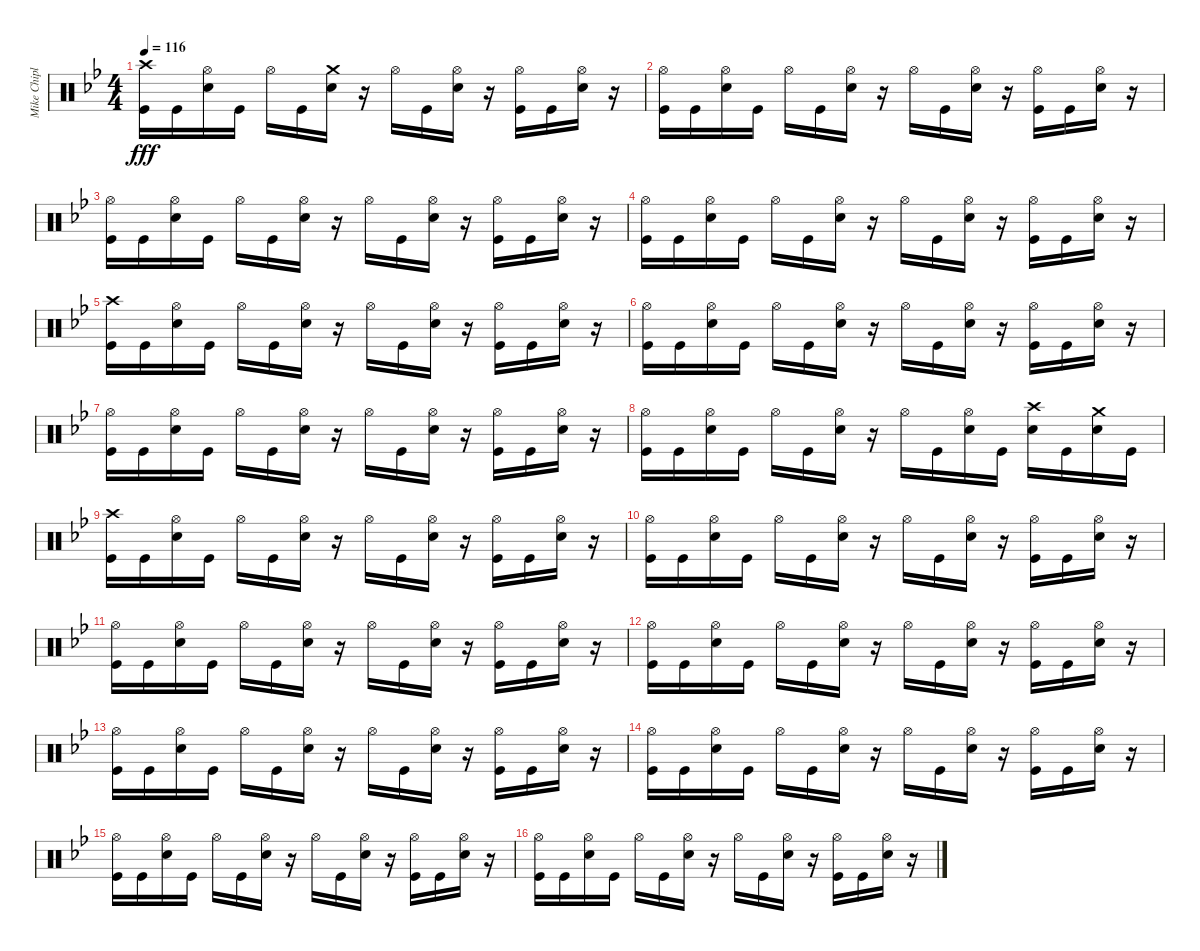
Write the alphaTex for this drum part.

\track ("Mike Chiplin" "Mike Chipl") {instrument percussion}
\staff {score}
\articulation defaults
\ts (4 4)
\tempo 116
\clef neutral
\ks bb
("Crash high (hit)" "Kick (hit)").16{dy fff} "Kick (hit)".16 ("Hi-Hat (open)" "Snare (hit) 2").16 "Kick (hit)".16 "Hi-Hat (open)".16 "Kick (hit)".16 ("Crash medium (hit)" "Snare (hit) 2").16 r.16 "Hi-Hat (open)".16 "Kick (hit)".16 ("Hi-Hat (open)" "Snare (hit) 2").16 r.16 ("Hi-Hat (open)" "Kick (hit)").16 "Kick (hit)".16 ("Hi-Hat (open)" "Snare (hit) 2").16 r.16 |
("Hi-Hat (open)" "Kick (hit)").16 "Kick (hit)".16 ("Hi-Hat (open)" "Snare (hit) 2").16 "Kick (hit)".16 "Hi-Hat (open)".16 "Kick (hit)".16 ("Hi-Hat (open)" "Snare (hit) 2").16 r.16 "Hi-Hat (open)".16 "Kick (hit)".16 ("Hi-Hat (open)" "Snare (hit) 2").16 r.16 ("Hi-Hat (open)" "Kick (hit)").16 "Kick (hit)".16 ("Hi-Hat (open)" "Snare (hit) 2").16 r.16 |
("Hi-Hat (open)" "Kick (hit)").16 "Kick (hit)".16 ("Hi-Hat (open)" "Snare (hit) 2").16 "Kick (hit)".16 "Hi-Hat (open)".16 "Kick (hit)".16 ("Hi-Hat (open)" "Snare (hit) 2").16 r.16 "Hi-Hat (open)".16 "Kick (hit)".16 ("Hi-Hat (open)" "Snare (hit) 2").16 r.16 ("Hi-Hat (open)" "Kick (hit)").16 "Kick (hit)".16 ("Hi-Hat (open)" "Snare (hit) 2").16 r.16 |
("Hi-Hat (open)" "Kick (hit)").16 "Kick (hit)".16 ("Hi-Hat (open)" "Snare (hit) 2").16 "Kick (hit)".16 "Hi-Hat (open)".16 "Kick (hit)".16 ("Hi-Hat (open)" "Snare (hit) 2").16 r.16 "Hi-Hat (open)".16 "Kick (hit)".16 ("Hi-Hat (open)" "Snare (hit) 2").16 r.16 ("Hi-Hat (open)" "Kick (hit)").16 "Kick (hit)".16 ("Hi-Hat (open)" "Snare (hit) 2").16 r.16 |
("Crash high (hit)" "Kick (hit)").16 "Kick (hit)".16 ("Hi-Hat (open)" "Snare (hit) 2").16 "Kick (hit)".16 "Hi-Hat (open)".16 "Kick (hit)".16 ("Hi-Hat (open)" "Snare (hit) 2").16 r.16 "Hi-Hat (open)".16 "Kick (hit)".16 ("Hi-Hat (open)" "Snare (hit) 2").16 r.16 ("Hi-Hat (open)" "Kick (hit)").16 "Kick (hit)".16 ("Hi-Hat (open)" "Snare (hit) 2").16 r.16 |
("Hi-Hat (open)" "Kick (hit)").16 "Kick (hit)".16 ("Hi-Hat (open)" "Snare (hit) 2").16 "Kick (hit)".16 "Hi-Hat (open)".16 "Kick (hit)".16 ("Hi-Hat (open)" "Snare (hit) 2").16 r.16 "Hi-Hat (open)".16 "Kick (hit)".16 ("Hi-Hat (open)" "Snare (hit) 2").16 r.16 ("Hi-Hat (open)" "Kick (hit)").16 "Kick (hit)".16 ("Hi-Hat (open)" "Snare (hit) 2").16 r.16 |
("Hi-Hat (open)" "Kick (hit)").16 "Kick (hit)".16 ("Hi-Hat (open)" "Snare (hit) 2").16 "Kick (hit)".16 "Hi-Hat (open)".16 "Kick (hit)".16 ("Hi-Hat (open)" "Snare (hit) 2").16 r.16 "Hi-Hat (open)".16 "Kick (hit)".16 ("Hi-Hat (open)" "Snare (hit) 2").16 r.16 ("Hi-Hat (open)" "Kick (hit)").16 "Kick (hit)".16 ("Hi-Hat (open)" "Snare (hit) 2").16 r.16 |
("Hi-Hat (open)" "Kick (hit)").16 "Kick (hit)".16 ("Hi-Hat (open)" "Snare (hit) 2").16 "Kick (hit)".16 "Hi-Hat (open)".16 "Kick (hit)".16 ("Hi-Hat (open)" "Snare (hit) 2").16 r.16 "Hi-Hat (open)".16 "Kick (hit)".16 ("Hi-Hat (open)" "Snare (hit) 2").16 "Kick (hit)".16 ("Crash high (hit)" "Snare (hit) 2").16 "Kick (hit)".16 ("Crash medium (hit)" "Snare (hit) 2").16 "Kick (hit)".16 |
("Crash high (hit)" "Kick (hit)").16 "Kick (hit)".16 ("Hi-Hat (open)" "Snare (hit) 2").16 "Kick (hit)".16 "Hi-Hat (open)".16 "Kick (hit)".16 ("Hi-Hat (open)" "Snare (hit) 2").16 r.16 "Hi-Hat (open)".16 "Kick (hit)".16 ("Hi-Hat (open)" "Snare (hit) 2").16 r.16 ("Hi-Hat (open)" "Kick (hit)").16 "Kick (hit)".16 ("Hi-Hat (open)" "Snare (hit) 2").16 r.16 |
("Hi-Hat (open)" "Kick (hit)").16 "Kick (hit)".16 ("Hi-Hat (open)" "Snare (hit) 2").16 "Kick (hit)".16 "Hi-Hat (open)".16 "Kick (hit)".16 ("Hi-Hat (open)" "Snare (hit) 2").16 r.16 "Hi-Hat (open)".16 "Kick (hit)".16 ("Hi-Hat (open)" "Snare (hit) 2").16 r.16 ("Hi-Hat (open)" "Kick (hit)").16 "Kick (hit)".16 ("Hi-Hat (open)" "Snare (hit) 2").16 r.16 |
("Hi-Hat (open)" "Kick (hit)").16 "Kick (hit)".16 ("Hi-Hat (open)" "Snare (hit) 2").16 "Kick (hit)".16 "Hi-Hat (open)".16 "Kick (hit)".16 ("Hi-Hat (open)" "Snare (hit) 2").16 r.16 "Hi-Hat (open)".16 "Kick (hit)".16 ("Hi-Hat (open)" "Snare (hit) 2").16 r.16 ("Hi-Hat (open)" "Kick (hit)").16 "Kick (hit)".16 ("Hi-Hat (open)" "Snare (hit) 2").16 r.16 |
("Hi-Hat (open)" "Kick (hit)").16 "Kick (hit)".16 ("Hi-Hat (open)" "Snare (hit) 2").16 "Kick (hit)".16 "Hi-Hat (open)".16 "Kick (hit)".16 ("Hi-Hat (open)" "Snare (hit) 2").16 r.16 "Hi-Hat (open)".16 "Kick (hit)".16 ("Hi-Hat (open)" "Snare (hit) 2").16 r.16 ("Hi-Hat (open)" "Kick (hit)").16 "Kick (hit)".16 ("Hi-Hat (open)" "Snare (hit) 2").16 r.16 |
("Hi-Hat (open)" "Kick (hit)").16 "Kick (hit)".16 ("Hi-Hat (open)" "Snare (hit) 2").16 "Kick (hit)".16 "Hi-Hat (open)".16 "Kick (hit)".16 ("Hi-Hat (open)" "Snare (hit) 2").16 r.16 "Hi-Hat (open)".16 "Kick (hit)".16 ("Hi-Hat (open)" "Snare (hit) 2").16 r.16 ("Hi-Hat (open)" "Kick (hit)").16 "Kick (hit)".16 ("Hi-Hat (open)" "Snare (hit) 2").16 r.16 |
("Hi-Hat (open)" "Kick (hit)").16 "Kick (hit)".16 ("Hi-Hat (open)" "Snare (hit) 2").16 "Kick (hit)".16 "Hi-Hat (open)".16 "Kick (hit)".16 ("Hi-Hat (open)" "Snare (hit) 2").16 r.16 "Hi-Hat (open)".16 "Kick (hit)".16 ("Hi-Hat (open)" "Snare (hit) 2").16 r.16 ("Hi-Hat (open)" "Kick (hit)").16 "Kick (hit)".16 ("Hi-Hat (open)" "Snare (hit) 2").16 r.16 |
("Hi-Hat (open)" "Kick (hit)").16 "Kick (hit)".16 ("Hi-Hat (open)" "Snare (hit) 2").16 "Kick (hit)".16 "Hi-Hat (open)".16 "Kick (hit)".16 ("Hi-Hat (open)" "Snare (hit) 2").16 r.16 "Hi-Hat (open)".16 "Kick (hit)".16 ("Hi-Hat (open)" "Snare (hit) 2").16 r.16 ("Hi-Hat (open)" "Kick (hit)").16 "Kick (hit)".16 ("Hi-Hat (open)" "Snare (hit) 2").16 r.16 |
("Hi-Hat (open)" "Kick (hit)").16 "Kick (hit)".16 ("Hi-Hat (open)" "Snare (hit) 2").16 "Kick (hit)".16 "Hi-Hat (open)".16 "Kick (hit)".16 ("Hi-Hat (open)" "Snare (hit) 2").16 r.16 "Hi-Hat (open)".16 "Kick (hit)".16 ("Hi-Hat (open)" "Snare (hit) 2").16 r.16 ("Hi-Hat (open)" "Kick (hit)").16 "Kick (hit)".16 ("Hi-Hat (open)" "Snare (hit) 2").16 r.16
